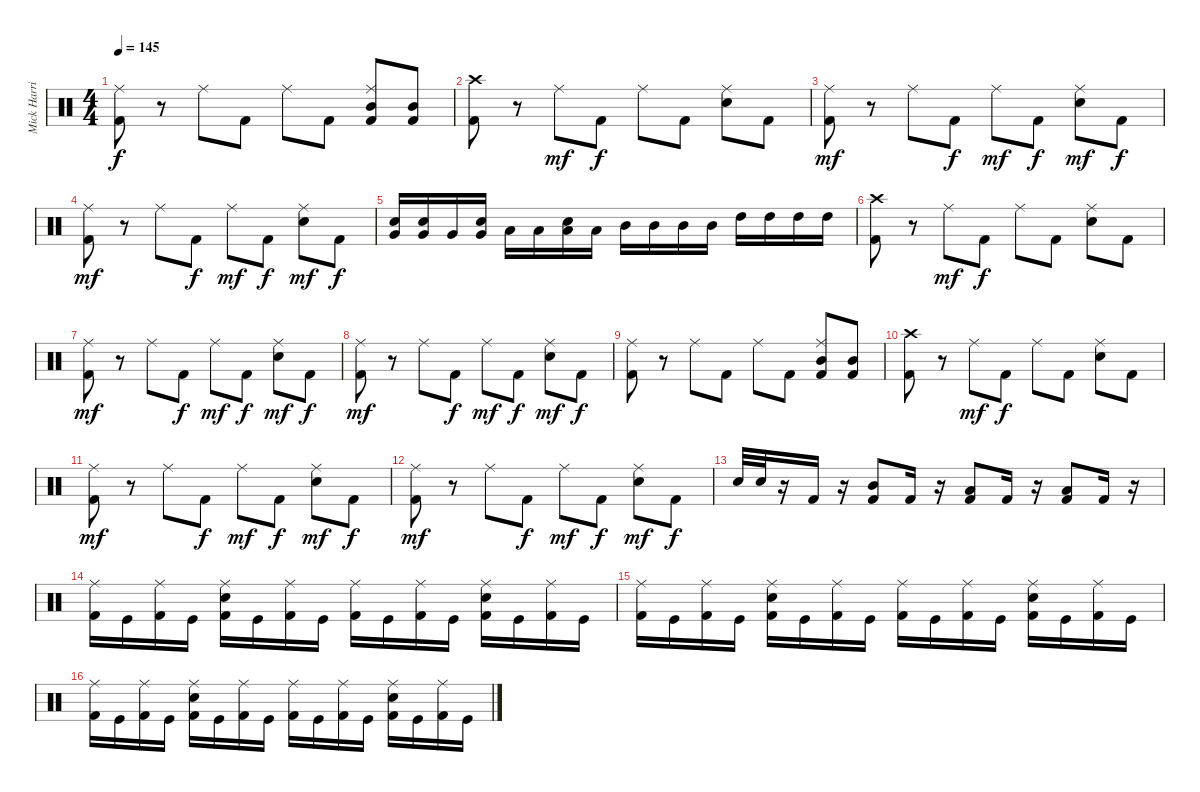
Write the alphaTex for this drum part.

\track ("Mick Harris (Drums)" "Mick Harri") {instrument percussion}
\staff {score}
\articulation defaults
\ts (4 4)
\tempo 145
\clef neutral
\ks c
("Kick (hit) 2" "Ride (middle)").8{dy f} r.8 "Ride (middle)".8 "Kick (hit) 2".8 "Ride (middle)".8 "Kick (hit) 2".8 ("Kick (hit) 2" "Mid Tom (hit)" "Ride (middle)").8 ("Kick (hit) 2" "Mid Tom (hit)").8 |
("Kick (hit) 2" "Crash high (hit)").8 r.8 "Ride (middle)".8{dy mf} "Kick (hit) 2".8{dy f} "Ride (middle)".8 "Kick (hit) 2".8 ("Electric Snare (hit)" "Ride (middle)").8 "Kick (hit) 2".8 |
("Kick (hit) 2" "Ride (middle)").8{dy mf} r.8 "Ride (middle)".8 "Kick (hit) 2".8{dy f} "Ride (middle)".8{dy mf} "Kick (hit) 2".8{dy f} ("Electric Snare (hit)" "Ride (middle)").8{dy mf} "Kick (hit) 2".8{dy f} |
("Kick (hit) 2" "Ride (middle)").8{dy mf} r.8 "Ride (middle)".8 "Kick (hit) 2".8{dy f} "Ride (middle)".8{dy mf} "Kick (hit) 2".8{dy f} ("Electric Snare (hit)" "Ride (middle)").8{dy mf} "Kick (hit) 2".8{dy f} |
("Very Low Tom (hit)" "Electric Snare (hit)").16 ("Very Low Tom (hit)" "Electric Snare (hit)").16 "Very Low Tom (hit)".16 ("Very Low Tom (hit)" "Electric Snare (hit)").16 "Low Tom (hit)".16 "Low Tom (hit)".16 ("Low Tom (hit)" "Electric Snare (hit)").16 "Low Tom (hit)".16 "Mid Tom (hit)".16 "Mid Tom (hit)".16 "Mid Tom (hit)".16 "Mid Tom (hit)".16 "High Tom (hit)".16 "High Tom (hit)".16 "High Tom (hit)".16 "High Tom (hit)".16 |
("Kick (hit) 2" "Crash high (hit)").8 r.8 "Ride (middle)".8{dy mf} "Kick (hit) 2".8{dy f} "Ride (middle)".8 "Kick (hit) 2".8 ("Electric Snare (hit)" "Ride (middle)").8 "Kick (hit) 2".8 |
("Kick (hit) 2" "Ride (middle)").8{dy mf} r.8 "Ride (middle)".8 "Kick (hit) 2".8{dy f} "Ride (middle)".8{dy mf} "Kick (hit) 2".8{dy f} ("Electric Snare (hit)" "Ride (middle)").8{dy mf} "Kick (hit) 2".8{dy f} |
("Kick (hit) 2" "Ride (middle)").8{dy mf} r.8 "Ride (middle)".8 "Kick (hit) 2".8{dy f} "Ride (middle)".8{dy mf} "Kick (hit) 2".8{dy f} ("Electric Snare (hit)" "Ride (middle)").8{dy mf} "Kick (hit) 2".8{dy f} |
("Kick (hit) 2" "Ride (middle)").8 r.8 "Ride (middle)".8 "Kick (hit) 2".8 "Ride (middle)".8 "Kick (hit) 2".8 ("Kick (hit) 2" "Mid Tom (hit)" "Ride (middle)").8 ("Kick (hit) 2" "Mid Tom (hit)").8 |
("Kick (hit) 2" "Crash high (hit)").8 r.8 "Ride (middle)".8{dy mf} "Kick (hit) 2".8{dy f} "Ride (middle)".8 "Kick (hit) 2".8 ("Electric Snare (hit)" "Ride (middle)").8 "Kick (hit) 2".8 |
("Kick (hit) 2" "Ride (middle)").8{dy mf} r.8 "Ride (middle)".8 "Kick (hit) 2".8{dy f} "Ride (middle)".8{dy mf} "Kick (hit) 2".8{dy f} ("Electric Snare (hit)" "Ride (middle)").8{dy mf} "Kick (hit) 2".8{dy f} |
("Kick (hit) 2" "Ride (middle)").8{dy mf} r.8 "Ride (middle)".8 "Kick (hit) 2".8{dy f} "Ride (middle)".8{dy mf} "Kick (hit) 2".8{dy f} ("Electric Snare (hit)" "Ride (middle)").8{dy mf} "Kick (hit) 2".8{dy f} |
"Electric Snare (hit)".32 "Electric Snare (hit)".32 r.16 "Kick (hit) 2".16 r.16 ("Mid Tom (hit)" "Kick (hit) 2").8 "Kick (hit) 2".16 r.16 ("Low Tom (hit)" "Kick (hit) 2").8 "Kick (hit) 2".16 r.16 ("Low Floor Tom (hit)" "Kick (hit) 2").8 "Kick (hit) 2".16 r.16 |
("Kick (hit) 2" "Ride (middle)").16 "Kick (hit)".16 ("Kick (hit) 2" "Ride (middle)").16 "Kick (hit)".16 ("Kick (hit) 2" "Electric Snare (hit)" "Ride (middle)").16 "Kick (hit)".16 ("Kick (hit) 2" "Ride (middle)").16 "Kick (hit)".16 ("Kick (hit) 2" "Ride (middle)").16 "Kick (hit)".16 ("Kick (hit) 2" "Ride (middle)").16 "Kick (hit)".16 ("Kick (hit) 2" "Electric Snare (hit)" "Ride (middle)").16 "Kick (hit)".16 ("Kick (hit) 2" "Ride (middle)").16 "Kick (hit)".16 |
("Kick (hit) 2" "Ride (middle)").16 "Kick (hit)".16 ("Kick (hit) 2" "Ride (middle)").16 "Kick (hit)".16 ("Kick (hit) 2" "Electric Snare (hit)" "Ride (middle)").16 "Kick (hit)".16 ("Kick (hit) 2" "Ride (middle)").16 "Kick (hit)".16 ("Kick (hit) 2" "Ride (middle)").16 "Kick (hit)".16 ("Kick (hit) 2" "Ride (middle)").16 "Kick (hit)".16 ("Kick (hit) 2" "Electric Snare (hit)" "Ride (middle)").16 "Kick (hit)".16 ("Kick (hit) 2" "Ride (middle)").16 "Kick (hit)".16 |
("Kick (hit) 2" "Ride (middle)").16 "Kick (hit)".16 ("Kick (hit) 2" "Ride (middle)").16 "Kick (hit)".16 ("Kick (hit) 2" "Electric Snare (hit)" "Ride (middle)").16 "Kick (hit)".16 ("Kick (hit) 2" "Ride (middle)").16 "Kick (hit)".16 ("Kick (hit) 2" "Ride (middle)").16 "Kick (hit)".16 ("Kick (hit) 2" "Ride (middle)").16 "Kick (hit)".16 ("Kick (hit) 2" "Electric Snare (hit)" "Ride (middle)").16 "Kick (hit)".16 ("Kick (hit) 2" "Ride (middle)").16 "Kick (hit)".16
